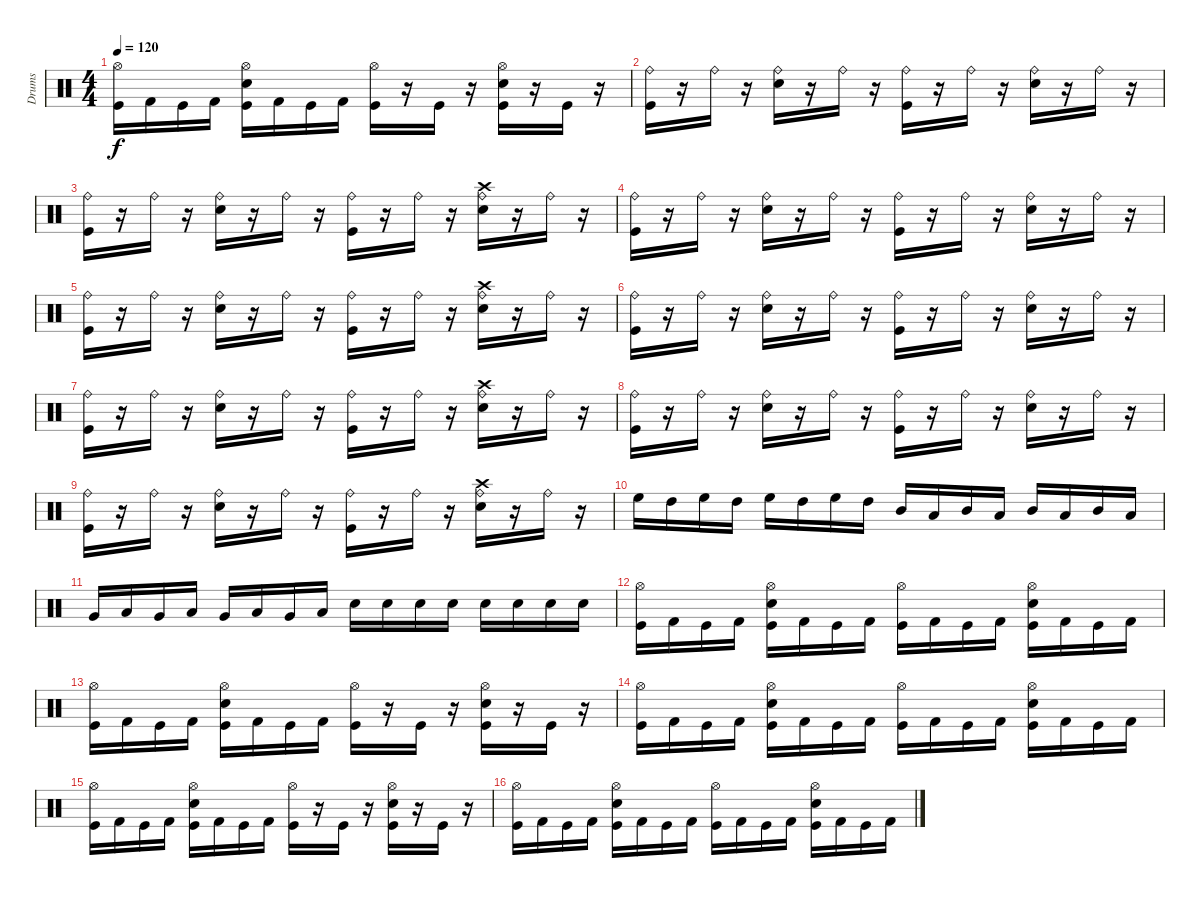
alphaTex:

\track ("Drums" "Drums") {instrument percussion}
\staff {score}
\articulation defaults
\ts (4 4)
\tempo 120
\clef neutral
\ks c
("Hi-Hat (open)" "Kick (hit)").16{dy f} "Kick (hit) 2".16 "Kick (hit)".16 "Kick (hit) 2".16 ("Hi-Hat (open)" "Snare (hit) 2" "Kick (hit)").16 "Kick (hit) 2".16 "Kick (hit)".16 "Kick (hit) 2".16 ("Hi-Hat (open)" "Kick (hit)").16 r.16 "Kick (hit)".16 r.16 ("Hi-Hat (open)" "Snare (hit) 2" "Kick (hit)").16 r.16 "Kick (hit)".16 r.16 |
("Ride (bell)" "Kick (hit)").16 r.16 "Ride (bell)".16 r.16 ("Ride (bell)" "Snare (hit) 2").16 r.16 "Ride (bell)".16 r.16 ("Ride (bell)" "Kick (hit)").16 r.16 "Ride (bell)".16 r.16 ("Ride (bell)" "Snare (hit) 2").16 r.16 "Ride (bell)".16 r.16 |
("Ride (bell)" "Kick (hit)").16 r.16 "Ride (bell)".16 r.16 ("Ride (bell)" "Snare (hit) 2").16 r.16 "Ride (bell)".16 r.16 ("Ride (bell)" "Kick (hit)").16 r.16 "Ride (bell)".16 r.16 ("Ride (bell)" "Snare (hit) 2" "Crash high (hit)").16 r.16 "Ride (bell)".16 r.16 |
("Ride (bell)" "Kick (hit)").16 r.16 "Ride (bell)".16 r.16 ("Ride (bell)" "Snare (hit) 2").16 r.16 "Ride (bell)".16 r.16 ("Ride (bell)" "Kick (hit)").16 r.16 "Ride (bell)".16 r.16 ("Ride (bell)" "Snare (hit) 2").16 r.16 "Ride (bell)".16 r.16 |
("Ride (bell)" "Kick (hit)").16 r.16 "Ride (bell)".16 r.16 ("Ride (bell)" "Snare (hit) 2").16 r.16 "Ride (bell)".16 r.16 ("Ride (bell)" "Kick (hit)").16 r.16 "Ride (bell)".16 r.16 ("Ride (bell)" "Snare (hit) 2" "Crash high (hit)").16 r.16 "Ride (bell)".16 r.16 |
("Ride (bell)" "Kick (hit)").16 r.16 "Ride (bell)".16 r.16 ("Ride (bell)" "Snare (hit) 2").16 r.16 "Ride (bell)".16 r.16 ("Ride (bell)" "Kick (hit)").16 r.16 "Ride (bell)".16 r.16 ("Ride (bell)" "Snare (hit) 2").16 r.16 "Ride (bell)".16 r.16 |
("Ride (bell)" "Kick (hit)").16 r.16 "Ride (bell)".16 r.16 ("Ride (bell)" "Snare (hit) 2").16 r.16 "Ride (bell)".16 r.16 ("Ride (bell)" "Kick (hit)").16 r.16 "Ride (bell)".16 r.16 ("Ride (bell)" "Snare (hit) 2" "Crash high (hit)").16 r.16 "Ride (bell)".16 r.16 |
("Ride (bell)" "Kick (hit)").16 r.16 "Ride (bell)".16 r.16 ("Ride (bell)" "Snare (hit) 2").16 r.16 "Ride (bell)".16 r.16 ("Ride (bell)" "Kick (hit)").16 r.16 "Ride (bell)".16 r.16 ("Ride (bell)" "Snare (hit) 2").16 r.16 "Ride (bell)".16 r.16 |
("Ride (bell)" "Kick (hit)").16 r.16 "Ride (bell)".16 r.16 ("Ride (bell)" "Snare (hit) 2").16 r.16 "Ride (bell)".16 r.16 ("Ride (bell)" "Kick (hit)").16 r.16 "Ride (bell)".16 r.16 ("Ride (bell)" "Snare (hit) 2" "Crash high (hit)").16 r.16 "Ride (bell)".16 r.16 |
"High Floor Tom (hit)".16 "High Tom (hit)".16 "High Floor Tom (hit)".16 "High Tom (hit)".16 "High Floor Tom (hit)".16 "High Tom (hit)".16 "High Floor Tom (hit)".16 "High Tom (hit)".16 "Mid Tom (hit)".16 "Low Tom (hit)".16 "Mid Tom (hit)".16 "Low Tom (hit)".16 "Mid Tom (hit)".16 "Low Tom (hit)".16 "Mid Tom (hit)".16 "Low Tom (hit)".16 |
"Very Low Tom (hit)".16 "Low Floor Tom (hit)".16 "Very Low Tom (hit)".16 "Low Floor Tom (hit)".16 "Very Low Tom (hit)".16 "Low Floor Tom (hit)".16 "Very Low Tom (hit)".16 "Low Floor Tom (hit)".16 "Snare (hit) 2".16 "Snare (hit) 2".16 "Snare (hit) 2".16 "Snare (hit) 2".16 "Electric Snare (hit)".16 "Electric Snare (hit)".16 "Electric Snare (hit)".16 "Electric Snare (hit)".16 |
("Hi-Hat (open)" "Kick (hit)").16 "Kick (hit) 2".16 "Kick (hit)".16 "Kick (hit) 2".16 ("Hi-Hat (open)" "Snare (hit) 2" "Kick (hit)").16 "Kick (hit) 2".16 "Kick (hit)".16 "Kick (hit) 2".16 ("Hi-Hat (open)" "Kick (hit)").16 "Kick (hit) 2".16 "Kick (hit)".16 "Kick (hit) 2".16 ("Hi-Hat (open)" "Snare (hit) 2" "Kick (hit)").16 "Kick (hit) 2".16 "Kick (hit)".16 "Kick (hit) 2".16 |
("Hi-Hat (open)" "Kick (hit)").16 "Kick (hit) 2".16 "Kick (hit)".16 "Kick (hit) 2".16 ("Hi-Hat (open)" "Snare (hit) 2" "Kick (hit)").16 "Kick (hit) 2".16 "Kick (hit)".16 "Kick (hit) 2".16 ("Hi-Hat (open)" "Kick (hit)").16 r.16 "Kick (hit)".16 r.16 ("Hi-Hat (open)" "Snare (hit) 2" "Kick (hit)").16 r.16 "Kick (hit)".16 r.16 |
("Hi-Hat (open)" "Kick (hit)").16 "Kick (hit) 2".16 "Kick (hit)".16 "Kick (hit) 2".16 ("Hi-Hat (open)" "Snare (hit) 2" "Kick (hit)").16 "Kick (hit) 2".16 "Kick (hit)".16 "Kick (hit) 2".16 ("Hi-Hat (open)" "Kick (hit)").16 "Kick (hit) 2".16 "Kick (hit)".16 "Kick (hit) 2".16 ("Hi-Hat (open)" "Snare (hit) 2" "Kick (hit)").16 "Kick (hit) 2".16 "Kick (hit)".16 "Kick (hit) 2".16 |
("Hi-Hat (open)" "Kick (hit)").16 "Kick (hit) 2".16 "Kick (hit)".16 "Kick (hit) 2".16 ("Hi-Hat (open)" "Snare (hit) 2" "Kick (hit)").16 "Kick (hit) 2".16 "Kick (hit)".16 "Kick (hit) 2".16 ("Hi-Hat (open)" "Kick (hit)").16 r.16 "Kick (hit)".16 r.16 ("Hi-Hat (open)" "Snare (hit) 2" "Kick (hit)").16 r.16 "Kick (hit)".16 r.16 |
("Hi-Hat (open)" "Kick (hit)").16 "Kick (hit) 2".16 "Kick (hit)".16 "Kick (hit) 2".16 ("Hi-Hat (open)" "Snare (hit) 2" "Kick (hit)").16 "Kick (hit) 2".16 "Kick (hit)".16 "Kick (hit) 2".16 ("Hi-Hat (open)" "Kick (hit)").16 "Kick (hit) 2".16 "Kick (hit)".16 "Kick (hit) 2".16 ("Hi-Hat (open)" "Snare (hit) 2" "Kick (hit)").16 "Kick (hit) 2".16 "Kick (hit)".16 "Kick (hit) 2".16
